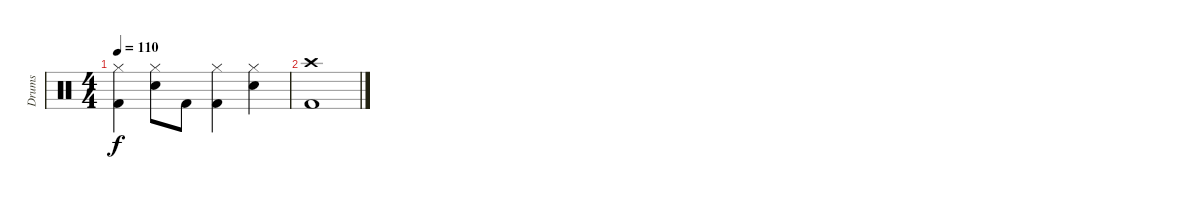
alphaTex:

\track ("Drums" "Drums") {instrument percussion}
\staff {score}
\articulation defaults
\ts (4 4)
\tempo 110
\clef neutral
\ks c
("Hi-Hat (closed)" "Kick (hit) 2").4{dy f} ("Hi-Hat (closed)" "Snare (hit) 2").8 "Kick (hit) 2".8 ("Hi-Hat (closed)" "Kick (hit) 2").4 ("Hi-Hat (closed)" "Snare (hit) 2").4 |
("Crash high (hit)" "Kick (hit) 2").1
